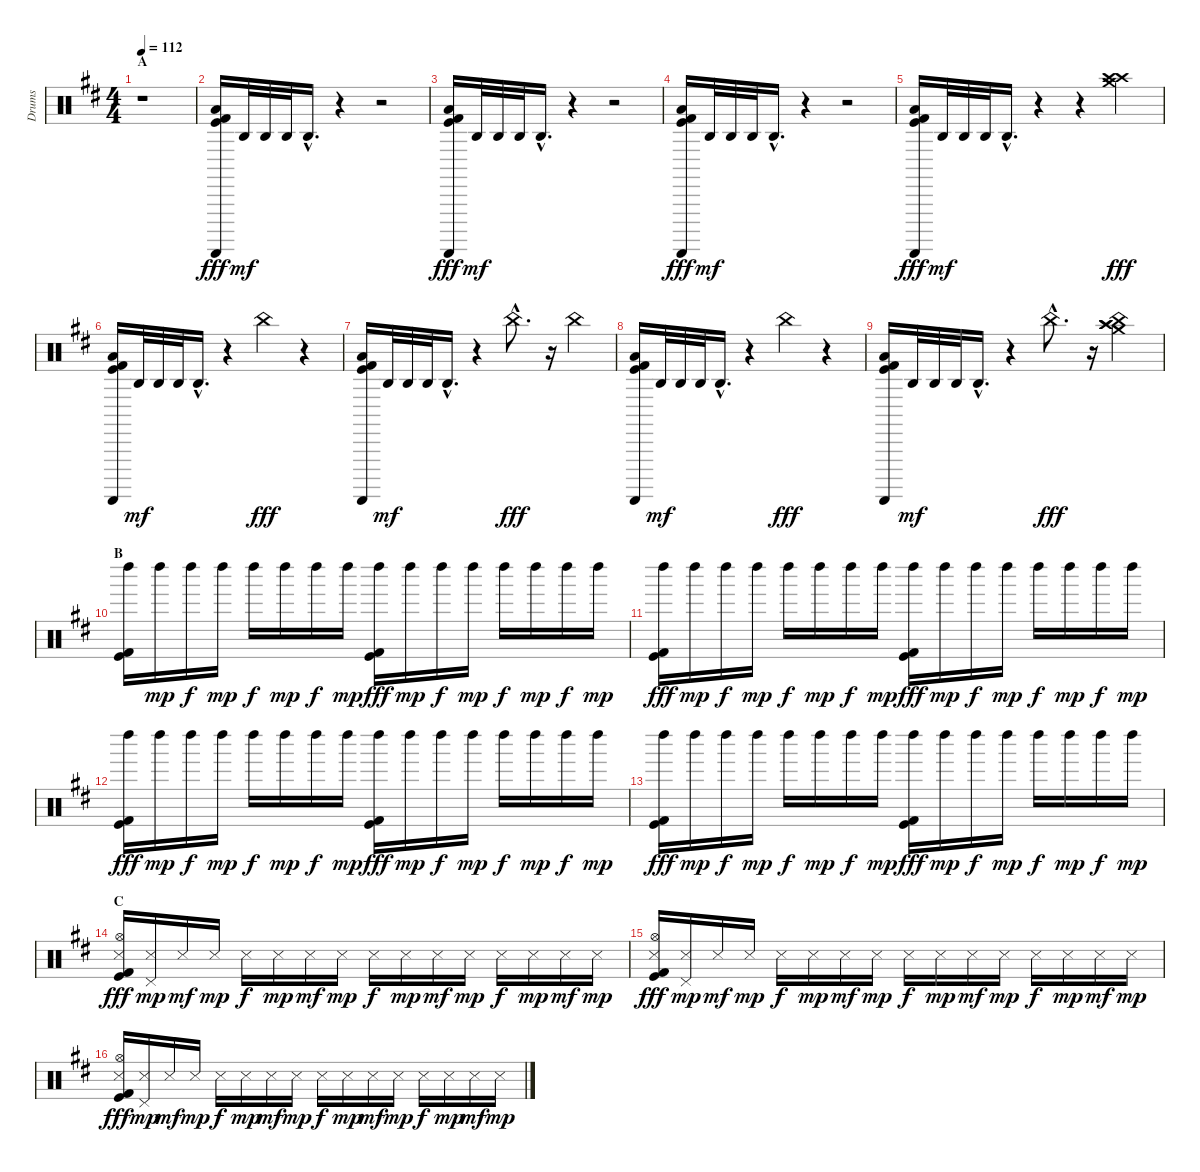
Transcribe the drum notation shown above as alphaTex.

\track ("Drums" "Drums") {instrument percussion}
\staff {score}
\articulation defaults
\ts (4 4)
\section ("" "A")
\tempo 112
\clef neutral
\ks d
r.1{dy fff} |
("Guiro (scrap-return)" "Low Floor Tom (hit)" "Kick (hit)" "Kick (hit) 2").16 "Agogo high (hit)".32{dy mf} "Agogo high (hit)".32 "Agogo high (hit)".32 "Agogo high (hit)"{hac}.16{d} r.4 r.2 |
("Guiro (scrap-return)" "Low Floor Tom (hit)" "Kick (hit)" "Kick (hit) 2").16{dy fff} "Agogo high (hit)".32{dy mf} "Agogo high (hit)".32 "Agogo high (hit)".32 "Agogo high (hit)"{hac}.16{d} r.4 r.2 |
("Guiro (scrap-return)" "Low Floor Tom (hit)" "Kick (hit)" "Kick (hit) 2").16{dy fff} "Agogo high (hit)".32{dy mf} "Agogo high (hit)".32 "Agogo high (hit)".32 "Agogo high (hit)"{hac}.16{d} r.4 r.2 |
("Guiro (scrap-return)" "Low Floor Tom (hit)" "Kick (hit)" "Kick (hit) 2").16{dy fff} "Agogo high (hit)".32{dy mf} "Agogo high (hit)".32 "Agogo high (hit)".32 "Agogo high (hit)"{hac}.16{d} r.4 r.4{volume 0} ("Crash medium (hit)" "Crash high (hit)" "Crash high (hit)").4{dy fff volume 13} |
("Guiro (scrap-return)" "Low Floor Tom (hit)" "Kick (hit)" "Kick (hit) 2").16 "Agogo high (hit)".32{dy mf} "Agogo high (hit)".32 "Agogo high (hit)".32 "Agogo high (hit)"{hac}.16{d} r.4{volume 0} "China (hit)".4{dy fff volume 13} r.4 |
("Guiro (scrap-return)" "Low Floor Tom (hit)" "Kick (hit)" "Kick (hit) 2").16 "Agogo high (hit)".32{dy mf} "Agogo high (hit)".32 "Agogo high (hit)".32 "Agogo high (hit)"{hac}.16{d} r.4{volume 0} "China (hit)"{hac}.8{d dy fff volume 13} r.16{volume 0} "China (hit)".4{volume 13} |
("Guiro (scrap-return)" "Low Floor Tom (hit)" "Kick (hit)" "Kick (hit) 2").16 "Agogo high (hit)".32{dy mf} "Agogo high (hit)".32 "Agogo high (hit)".32 "Agogo high (hit)"{hac}.16{d} r.4{volume 0} "China (hit)".4{dy fff volume 13} r.4 |
("Guiro (scrap-return)" "Low Floor Tom (hit)" "Kick (hit)" "Kick (hit) 2").16 "Agogo high (hit)".32{dy mf} "Agogo high (hit)".32 "Agogo high (hit)".32 "Agogo high (hit)"{hac}.16{d} r.4{volume 0} "China (hit)"{hac}.8{d dy fff volume 13} r.16{volume 0} ("Crash medium (hit)" "China (hit)" "Crash high (hit)" "Crash high (hit)").4{volume 13} |
\section ("" "B")
("Left Maraca (hit)" "Kick (hit)" "Kick (hit) 2").16 "Left Maraca (hit)".16{dy mp} "Left Maraca (hit)".16{dy f} "Left Maraca (hit)".16{dy mp} "Left Maraca (hit)".16{dy f} "Left Maraca (hit)".16{dy mp} "Left Maraca (hit)".16{dy f} "Left Maraca (hit)".16{dy mp} ("Left Maraca (hit)" "Kick (hit)" "Kick (hit) 2").16{dy fff} "Left Maraca (hit)".16{dy mp} "Left Maraca (hit)".16{dy f} "Left Maraca (hit)".16{dy mp} "Left Maraca (hit)".16{dy f} "Left Maraca (hit)".16{dy mp} "Left Maraca (hit)".16{dy f} "Left Maraca (hit)".16{dy mp} |
("Left Maraca (hit)" "Kick (hit)" "Kick (hit) 2").16{dy fff} "Left Maraca (hit)".16{dy mp} "Left Maraca (hit)".16{dy f} "Left Maraca (hit)".16{dy mp} "Left Maraca (hit)".16{dy f} "Left Maraca (hit)".16{dy mp} "Left Maraca (hit)".16{dy f} "Left Maraca (hit)".16{dy mp} ("Left Maraca (hit)" "Kick (hit)" "Kick (hit) 2").16{dy fff} "Left Maraca (hit)".16{dy mp} "Left Maraca (hit)".16{dy f} "Left Maraca (hit)".16{dy mp} "Left Maraca (hit)".16{dy f} "Left Maraca (hit)".16{dy mp} "Left Maraca (hit)".16{dy f} "Left Maraca (hit)".16{dy mp} |
("Left Maraca (hit)" "Kick (hit)" "Kick (hit) 2").16{dy fff} "Left Maraca (hit)".16{dy mp} "Left Maraca (hit)".16{dy f} "Left Maraca (hit)".16{dy mp} "Left Maraca (hit)".16{dy f} "Left Maraca (hit)".16{dy mp} "Left Maraca (hit)".16{dy f} "Left Maraca (hit)".16{dy mp} ("Left Maraca (hit)" "Kick (hit)" "Kick (hit) 2").16{dy fff} "Left Maraca (hit)".16{dy mp} "Left Maraca (hit)".16{dy f} "Left Maraca (hit)".16{dy mp} "Left Maraca (hit)".16{dy f} "Left Maraca (hit)".16{dy mp} "Left Maraca (hit)".16{dy f} "Left Maraca (hit)".16{dy mp} |
("Left Maraca (hit)" "Kick (hit)" "Kick (hit) 2").16{dy fff} "Left Maraca (hit)".16{dy mp} "Left Maraca (hit)".16{dy f} "Left Maraca (hit)".16{dy mp} "Left Maraca (hit)".16{dy f} "Left Maraca (hit)".16{dy mp} "Left Maraca (hit)".16{dy f} "Left Maraca (hit)".16{dy mp} ("Left Maraca (hit)" "Kick (hit)" "Kick (hit) 2").16{dy fff} "Left Maraca (hit)".16{dy mp} "Left Maraca (hit)".16{dy f} "Left Maraca (hit)".16{dy mp} "Left Maraca (hit)".16{dy f} "Left Maraca (hit)".16{dy mp} "Left Maraca (hit)".16{dy f} "Left Maraca (hit)".16{dy mp} |
\section ("" "C")
("Hi-Hat (open)" "Snare (side stick) 3" "Kick (hit) 2" "Kick (hit)").16{dy fff} ("Pedal Hi-Hat (hit)" "Snare (side stick) 3").16{dy mp} "Snare (side stick) 3".16{dy mf} "Snare (side stick) 3".16{dy mp} "Snare (side stick) 3".16{dy f} "Snare (side stick) 3".16{dy mp} "Snare (side stick) 3".16{dy mf} "Snare (side stick) 3".16{dy mp} "Snare (side stick) 3".16{dy f} "Snare (side stick) 3".16{dy mp} "Snare (side stick) 3".16{dy mf} "Snare (side stick) 3".16{dy mp} "Snare (side stick) 3".16{dy f} "Snare (side stick) 3".16{dy mp} "Snare (side stick) 3".16{dy mf} "Snare (side stick) 3".16{dy mp} |
("Hi-Hat (open)" "Snare (side stick) 3" "Kick (hit) 2" "Kick (hit)").16{dy fff} ("Pedal Hi-Hat (hit)" "Snare (side stick) 3").16{dy mp} "Snare (side stick) 3".16{dy mf} "Snare (side stick) 3".16{dy mp} "Snare (side stick) 3".16{dy f} "Snare (side stick) 3".16{dy mp} "Snare (side stick) 3".16{dy mf} "Snare (side stick) 3".16{dy mp} "Snare (side stick) 3".16{dy f} "Snare (side stick) 3".16{dy mp} "Snare (side stick) 3".16{dy mf} "Snare (side stick) 3".16{dy mp} "Snare (side stick) 3".16{dy f} "Snare (side stick) 3".16{dy mp} "Snare (side stick) 3".16{dy mf} "Snare (side stick) 3".16{dy mp} |
("Hi-Hat (open)" "Snare (side stick) 3" "Kick (hit) 2" "Kick (hit)").16{dy fff} ("Pedal Hi-Hat (hit)" "Snare (side stick) 3").16{dy mp} "Snare (side stick) 3".16{dy mf} "Snare (side stick) 3".16{dy mp} "Snare (side stick) 3".16{dy f} "Snare (side stick) 3".16{dy mp} "Snare (side stick) 3".16{dy mf} "Snare (side stick) 3".16{dy mp} "Snare (side stick) 3".16{dy f} "Snare (side stick) 3".16{dy mp} "Snare (side stick) 3".16{dy mf} "Snare (side stick) 3".16{dy mp} "Snare (side stick) 3".16{dy f} "Snare (side stick) 3".16{dy mp} "Snare (side stick) 3".16{dy mf} "Snare (side stick) 3".16{dy mp}
